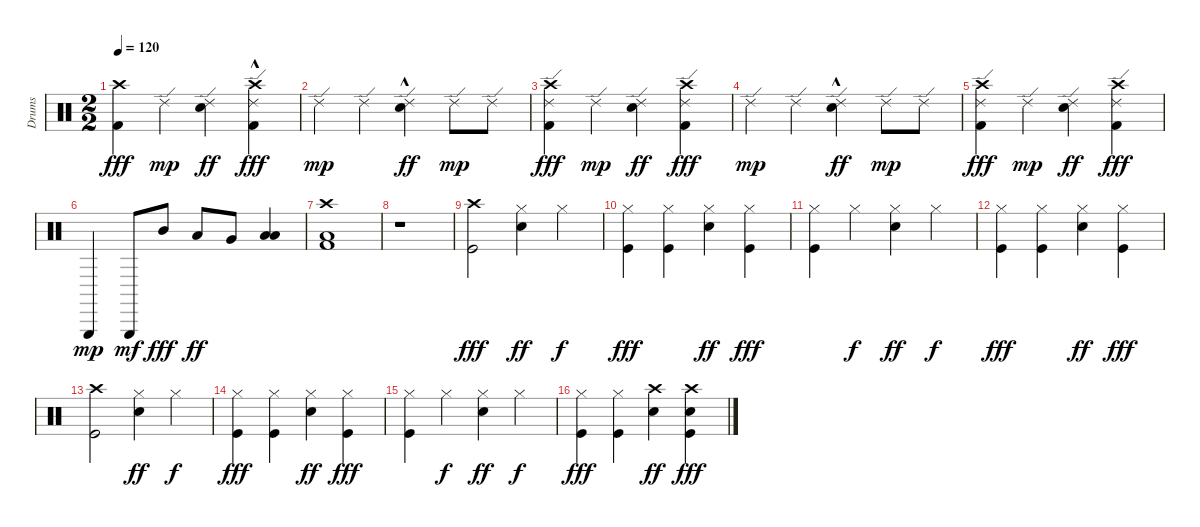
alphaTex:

\track ("Drums" "Drums") {instrument percussion}
\staff {score}
\articulation defaults
\ts (2 2)
\tempo 120
\clef neutral
\ks c
("Crash high (hit)" "Kick (hit) 2").4{dy fff volume 12} "Ride (edge) 2".4{dy mp} ("Ride (edge) 2" "Electric Snare (hit)").4{dy ff} ("Ride (edge) 2" "Crash high (hit)" "Kick (hit) 2"{hac}).4{dy fff} |
"Ride (edge) 2".4{dy mp} "Ride (edge) 2".4 ("Ride (edge) 2" "Electric Snare (hit)"{hac}).4{dy ff} "Ride (edge) 2".8{dy mp} "Ride (edge) 2".8 |
("Ride (edge) 2" "Crash high (hit)" "Kick (hit) 2").4{dy fff} "Ride (edge) 2".4{dy mp} ("Ride (edge) 2" "Electric Snare (hit)").4{dy ff} ("Ride (edge) 2" "Crash high (hit)" "Kick (hit) 2").4{dy fff} |
"Ride (edge) 2".4{dy mp} "Ride (edge) 2".4 ("Ride (edge) 2" "Electric Snare (hit)"{hac}).4{dy ff} "Ride (edge) 2".8{dy mp} "Ride (edge) 2".8 |
("Ride (edge) 2" "Crash high (hit)" "Kick (hit) 2").4{dy fff} "Ride (edge) 2".4{dy mp} ("Ride (edge) 2" "Electric Snare (hit)").4{dy ff} ("Ride (edge) 2" "Crash high (hit)" "Kick (hit) 2").4{dy fff} |
"Triangle (hit)".4{dy mp} "Triangle (hit)".8{dy mf} "Mid Tom (hit)".8{dy fff} "Low Tom (hit)".8{dy ff} "Very Low Tom (hit)".8 ("Low Floor Tom (hit)" "Low Floor Tom (hit)").4 |
("Kick (hit) 2" "Low Floor Tom (hit)" "Crash high (hit)").1 |
r.1 |
("Crash high (hit)" "Kick (hit)").2{dy fff} ("Hi-Hat (closed)" "Electric Snare (hit)").4{dy ff} "Hi-Hat (closed)".4{dy f} |
("Hi-Hat (closed)" "Kick (hit)").4{dy fff} ("Hi-Hat (closed)" "Kick (hit)").4 ("Hi-Hat (closed)" "Electric Snare (hit)").4{dy ff} ("Hi-Hat (closed)" "Kick (hit)").4{dy fff} |
("Hi-Hat (closed)" "Kick (hit)").4 "Hi-Hat (closed)".4{dy f} ("Hi-Hat (closed)" "Electric Snare (hit)").4{dy ff} "Hi-Hat (closed)".4{dy f} |
("Hi-Hat (closed)" "Kick (hit)").4{dy fff} ("Hi-Hat (closed)" "Kick (hit)").4 ("Hi-Hat (closed)" "Electric Snare (hit)").4{dy ff} ("Hi-Hat (closed)" "Kick (hit)").4{dy fff} |
("Crash high (hit)" "Kick (hit)").2 ("Hi-Hat (closed)" "Electric Snare (hit)").4{dy ff} "Hi-Hat (closed)".4{dy f} |
("Hi-Hat (closed)" "Kick (hit)").4{dy fff} ("Hi-Hat (closed)" "Kick (hit)").4 ("Hi-Hat (closed)" "Electric Snare (hit)").4{dy ff} ("Hi-Hat (closed)" "Kick (hit)").4{dy fff} |
("Hi-Hat (closed)" "Kick (hit)").4 "Hi-Hat (closed)".4{dy f} ("Hi-Hat (closed)" "Electric Snare (hit)").4{dy ff} "Hi-Hat (closed)".4{dy f} |
("Hi-Hat (closed)" "Kick (hit)").4{dy fff} ("Hi-Hat (closed)" "Kick (hit)").4 ("Crash high (hit)" "Electric Snare (hit)").4{dy ff} ("Crash high (hit)" "Electric Snare (hit)" "Kick (hit)").4{dy fff}
